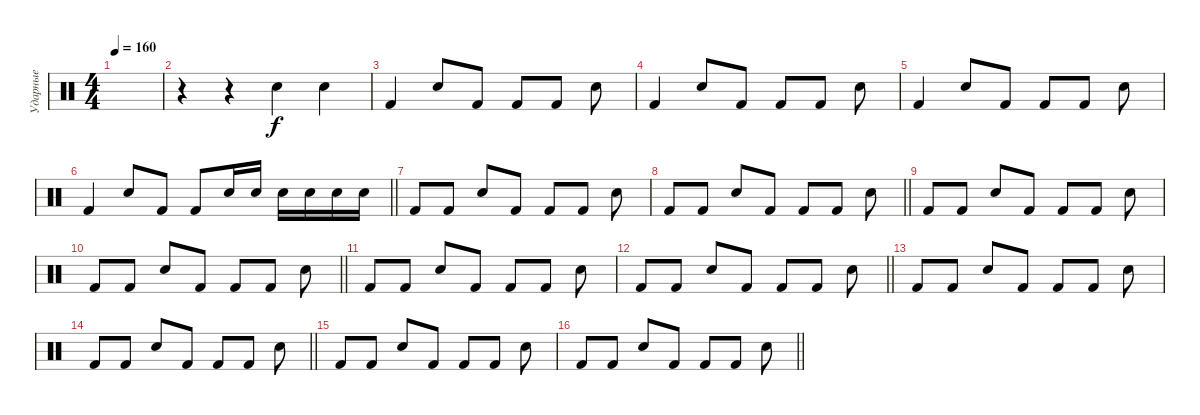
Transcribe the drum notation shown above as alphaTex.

\track ("Ударные" "Ударные") {instrument percussion}
\staff {score}
\articulation defaults
\ts (4 4)
\tempo 160
\clef neutral
\ks c
|
r.4 r.4 "Snare (hit) 2".4 "Snare (hit) 2".4 |
"Kick (hit) 2".4 "Snare (hit) 2".8 "Kick (hit) 2".8 "Kick (hit) 2".8 "Kick (hit) 2".8 "Snare (hit) 2".8 |
"Kick (hit) 2".4 "Snare (hit) 2".8 "Kick (hit) 2".8 "Kick (hit) 2".8 "Kick (hit) 2".8 "Snare (hit) 2".8 |
"Kick (hit) 2".4 "Snare (hit) 2".8 "Kick (hit) 2".8 "Kick (hit) 2".8 "Kick (hit) 2".8 "Snare (hit) 2".8 |
\barLineRight lightlight "Kick (hit) 2".4 "Snare (hit) 2".8 "Kick (hit) 2".8 "Kick (hit) 2".8 "Snare (hit) 2".16 "Snare (hit) 2".16 "Snare (hit) 2".16 "Snare (hit) 2".16 "Snare (hit) 2".16 "Snare (hit) 2".16
|
"Kick (hit) 2".8 "Kick (hit) 2".8 "Snare (hit) 2".8 "Kick (hit) 2".8 "Kick (hit) 2".8 "Kick (hit) 2".8 "Snare (hit) 2".8 |
\barLineRight lightlight "Kick (hit) 2".8 "Kick (hit) 2".8 "Snare (hit) 2".8 "Kick (hit) 2".8 "Kick (hit) 2".8 "Kick (hit) 2".8 "Snare (hit) 2".8
|
"Kick (hit) 2".8 "Kick (hit) 2".8 "Snare (hit) 2".8 "Kick (hit) 2".8 "Kick (hit) 2".8 "Kick (hit) 2".8 "Snare (hit) 2".8 |
\barLineRight lightlight "Kick (hit) 2".8 "Kick (hit) 2".8 "Snare (hit) 2".8 "Kick (hit) 2".8 "Kick (hit) 2".8 "Kick (hit) 2".8 "Snare (hit) 2".8
|
"Kick (hit) 2".8 "Kick (hit) 2".8 "Snare (hit) 2".8 "Kick (hit) 2".8 "Kick (hit) 2".8 "Kick (hit) 2".8 "Snare (hit) 2".8 |
\barLineRight lightlight "Kick (hit) 2".8 "Kick (hit) 2".8 "Snare (hit) 2".8 "Kick (hit) 2".8 "Kick (hit) 2".8 "Kick (hit) 2".8 "Snare (hit) 2".8
|
"Kick (hit) 2".8 "Kick (hit) 2".8 "Snare (hit) 2".8 "Kick (hit) 2".8 "Kick (hit) 2".8 "Kick (hit) 2".8 "Snare (hit) 2".8 |
\barLineRight lightlight "Kick (hit) 2".8 "Kick (hit) 2".8 "Snare (hit) 2".8 "Kick (hit) 2".8 "Kick (hit) 2".8 "Kick (hit) 2".8 "Snare (hit) 2".8
|
"Kick (hit) 2".8 "Kick (hit) 2".8 "Snare (hit) 2".8 "Kick (hit) 2".8 "Kick (hit) 2".8 "Kick (hit) 2".8 "Snare (hit) 2".8 |
\barLineRight lightlight "Kick (hit) 2".8 "Kick (hit) 2".8 "Snare (hit) 2".8 "Kick (hit) 2".8 "Kick (hit) 2".8 "Kick (hit) 2".8 "Snare (hit) 2".8
